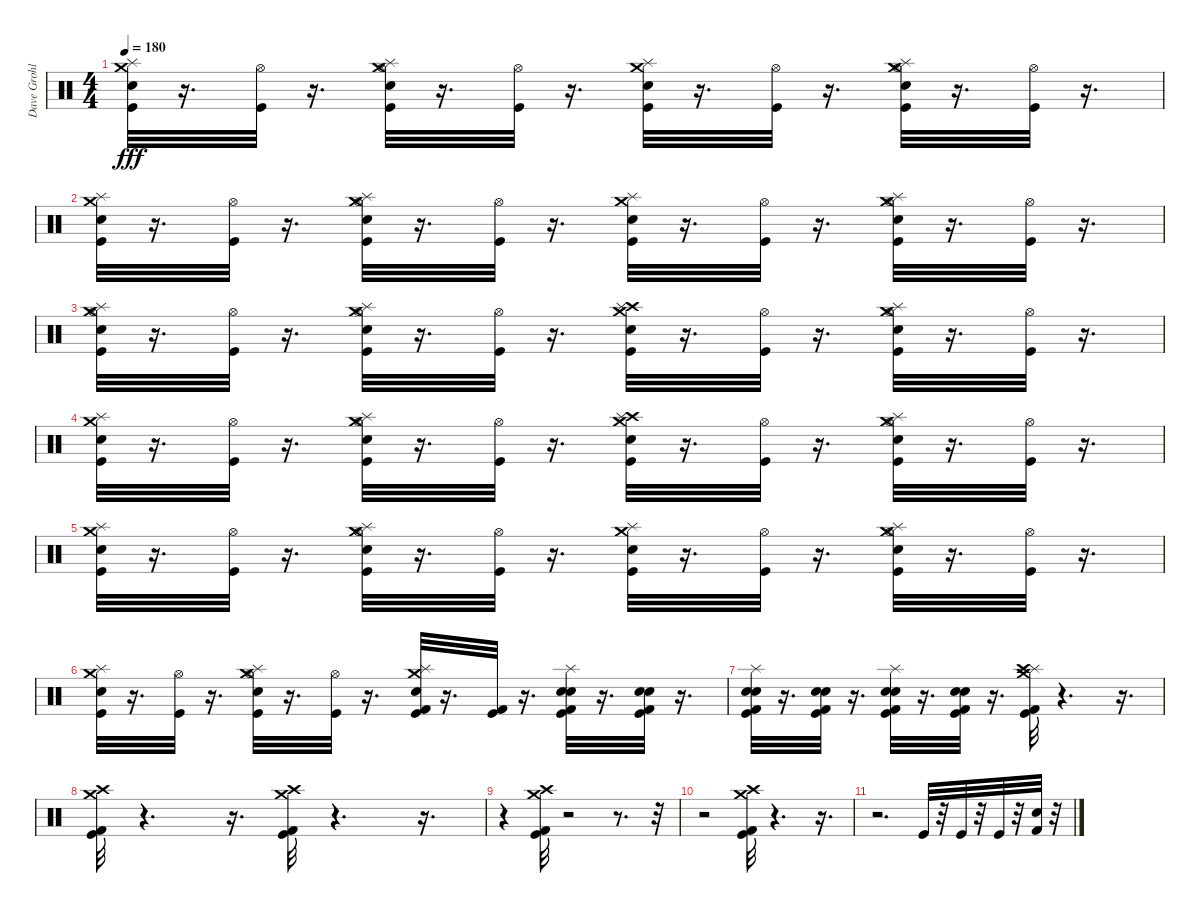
\track ("Dave Grohl - Drums" "Dave Grohl") {instrument percussion}
\staff {score}
\articulation defaults
\ts (4 4)
\tempo 180
\clef neutral
\ks c
("Snare (hit) 2" "Crash medium (hit)" "Splash (hit)" "Kick (hit)").32{dy fff} r.16{d} ("Hi-Hat (open)" "Kick (hit)").32 r.16{d} ("Kick (hit)" "Crash medium (hit)" "Splash (hit)" "Hi-Hat (open)" "Snare (hit) 2").32 r.16{d} ("Kick (hit)" "Hi-Hat (open)").32 r.16{d} ("Snare (hit) 2" "Crash medium (hit)" "Splash (hit)" "Kick (hit)").32 r.16{d} ("Hi-Hat (open)" "Kick (hit)").32 r.16{d} ("Kick (hit)" "Crash medium (hit)" "Splash (hit)" "Hi-Hat (open)" "Snare (hit) 2").32 r.16{d} ("Kick (hit)" "Hi-Hat (open)").32 r.16{d} |
("Snare (hit) 2" "Crash medium (hit)" "Splash (hit)" "Kick (hit)").32 r.16{d} ("Hi-Hat (open)" "Kick (hit)").32 r.16{d} ("Kick (hit)" "Crash medium (hit)" "Splash (hit)" "Hi-Hat (open)" "Snare (hit) 2").32 r.16{d} ("Kick (hit)" "Hi-Hat (open)").32 r.16{d} ("Snare (hit) 2" "Crash medium (hit)" "Splash (hit)" "Kick (hit)").32 r.16{d} ("Hi-Hat (open)" "Kick (hit)").32 r.16{d} ("Kick (hit)" "Crash medium (hit)" "Splash (hit)" "Hi-Hat (open)" "Snare (hit) 2").32 r.16{d} ("Hi-Hat (open)" "Kick (hit)").32 r.16{d} |
("Kick (hit)" "Crash medium (hit)" "Splash (hit)" "Hi-Hat (open)" "Snare (hit) 2").32 r.16{d} ("Hi-Hat (open)" "Kick (hit)").32 r.16{d} ("Kick (hit)" "Crash medium (hit)" "Splash (hit)" "Hi-Hat (open)" "Snare (hit) 2").32 r.16{d} ("Hi-Hat (open)" "Kick (hit)").32 r.16{d} ("Crash high (hit)" "Crash medium (hit)" "Splash (hit)" "Snare (hit) 2" "Kick (hit)").32 r.16{d} ("Hi-Hat (open)" "Kick (hit)").32 r.16{d} ("Kick (hit)" "Crash medium (hit)" "Splash (hit)" "Hi-Hat (open)" "Snare (hit) 2").32 r.16{d} ("Kick (hit)" "Hi-Hat (open)").32 r.16{d} |
("Snare (hit) 2" "Crash medium (hit)" "Splash (hit)" "Kick (hit)").32 r.16{d} ("Hi-Hat (open)" "Kick (hit)").32 r.16{d} ("Kick (hit)" "Crash medium (hit)" "Splash (hit)" "Hi-Hat (open)" "Snare (hit) 2").32 r.16{d} ("Kick (hit)" "Hi-Hat (open)").32 r.16{d} ("Snare (hit) 2" "Crash medium (hit)" "Crash high (hit)" "Splash (hit)" "Kick (hit)").32 r.16{d} ("Hi-Hat (open)" "Kick (hit)").32 r.16{d} ("Kick (hit)" "Crash medium (hit)" "Splash (hit)" "Hi-Hat (open)" "Snare (hit) 2").32 r.16{d} ("Kick (hit)" "Hi-Hat (open)").32 r.16{d} |
("Snare (hit) 2" "Crash medium (hit)" "Splash (hit)" "Kick (hit)").32 r.16{d} ("Hi-Hat (open)" "Kick (hit)").32 r.16{d} ("Kick (hit)" "Crash medium (hit)" "Splash (hit)" "Hi-Hat (open)" "Snare (hit) 2").32 r.16{d} ("Kick (hit)" "Hi-Hat (open)").32 r.16{d} ("Snare (hit) 2" "Crash medium (hit)" "Splash (hit)" "Kick (hit)").32 r.16{d} ("Hi-Hat (open)" "Kick (hit)").32 r.16{d} ("Kick (hit)" "Crash medium (hit)" "Splash (hit)" "Hi-Hat (open)" "Snare (hit) 2").32 r.16{d} ("Kick (hit)" "Hi-Hat (open)").32 r.16{d} |
("Snare (hit) 2" "Crash medium (hit)" "Splash (hit)" "Kick (hit)").32 r.16{d} ("Hi-Hat (open)" "Kick (hit)").32 r.16{d} ("Kick (hit)" "Crash medium (hit)" "Splash (hit)" "Hi-Hat (open)" "Snare (hit) 2").32 r.16{d} ("Kick (hit)" "Hi-Hat (open)").32 r.16{d} ("Snare (hit) 2" "Kick (hit) 2" "Crash medium (hit)" "Splash (hit)" "Kick (hit)").32 r.16{d} ("Kick (hit) 2" "Kick (hit)").32 r.16{d} ("Electric Snare (hit)" "Kick (hit) 2" "Kick (hit)" "Splash (hit)" "Snare (hit) 2").32 r.16{d} ("Electric Snare (hit)" "Snare (hit) 2" "Kick (hit) 2" "Kick (hit)").32 r.16{d} |
("Electric Snare (hit)" "Kick (hit) 2" "Kick (hit)" "Splash (hit)" "Snare (hit) 2").32 r.16{d} ("Electric Snare (hit)" "Snare (hit) 2" "Kick (hit) 2" "Kick (hit)").32 r.16{d} ("Electric Snare (hit)" "Kick (hit) 2" "Kick (hit)" "Splash (hit)" "Snare (hit) 2").32 r.16{d} ("Kick (hit) 2" "Electric Snare (hit)" "Snare (hit) 2" "Kick (hit)").32 r.16{d} ("Kick (hit) 2" "Kick (hit)" "Crash medium (hit)" "Splash (hit)" "Crash high (hit)").32 r.4{d} r.16{d} |
("Kick (hit)" "Kick (hit) 2" "Crash medium (hit)" "Crash high (hit)").32 r.4{d} r.16{d} ("Kick (hit)" "Kick (hit) 2" "Crash high (hit)" "Crash medium (hit)").32 r.4{d} r.16{d} |
r.4 ("Kick (hit)" "Kick (hit) 2" "Crash high (hit)" "Crash medium (hit)").32 r.2 r.8{d} r.32 |
r.2 ("Kick (hit)" "Kick (hit) 2" "Crash high (hit)" "Crash medium (hit)").32 r.4{d} r.16{d} |
r.2{d} "Kick (hit)".32 r.32 "Kick (hit)".32 r.32 "Kick (hit)".32 r.32 ("Kick (hit) 2" "Snare (hit) 2").32 r.32
